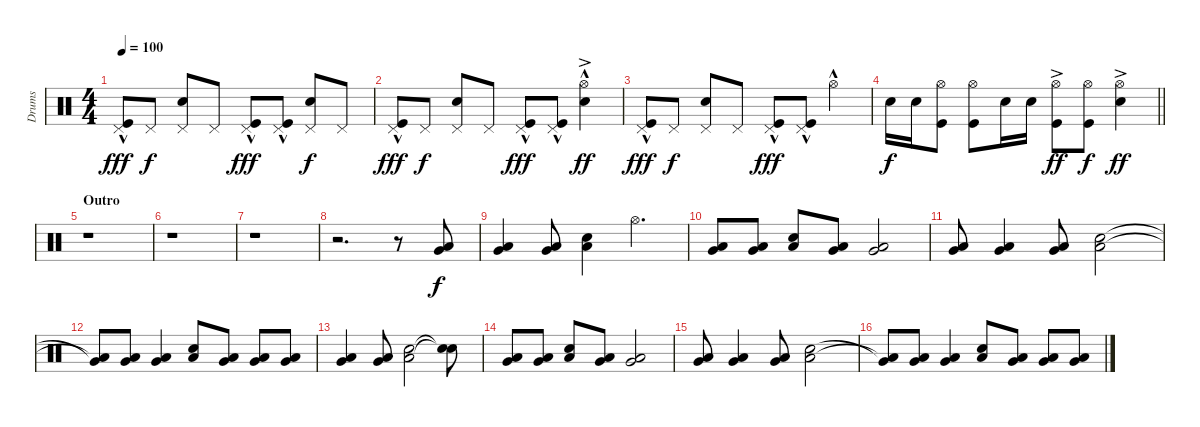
\track ("Drums" "Drums") {instrument percussion}
\staff {score}
\articulation defaults
\ts (4 4)
\tempo 100
\clef neutral
\ks c
("Pedal Hi-Hat (hit)" "Kick (hit)"{hac}).8{dy fff} "Pedal Hi-Hat (hit)".8{dy f} ("Pedal Hi-Hat (hit)" "Snare (hit) 2").8 "Pedal Hi-Hat (hit)".8 ("Pedal Hi-Hat (hit)" "Kick (hit)"{hac}).8{dy fff} ("Pedal Hi-Hat (hit)" "Kick (hit)"{hac}).8 ("Pedal Hi-Hat (hit)" "Snare (hit) 2").8{dy f} "Pedal Hi-Hat (hit)".8 |
("Pedal Hi-Hat (hit)" "Kick (hit)"{hac}).8{dy fff} "Pedal Hi-Hat (hit)".8{dy f} ("Pedal Hi-Hat (hit)" "Snare (hit) 2").8 "Pedal Hi-Hat (hit)".8 ("Pedal Hi-Hat (hit)" "Kick (hit)"{hac}).8{dy fff} ("Pedal Hi-Hat (hit)" "Kick (hit)"{hac}).8 ("Hi-Hat (open)"{hac} "Snare (hit) 2"{ac}).4{dy ff} |
("Pedal Hi-Hat (hit)" "Kick (hit)"{hac}).8{dy fff} "Pedal Hi-Hat (hit)".8{dy f} ("Pedal Hi-Hat (hit)" "Snare (hit) 2").8 "Pedal Hi-Hat (hit)".8 ("Pedal Hi-Hat (hit)" "Kick (hit)"{hac}).8{dy fff} ("Pedal Hi-Hat (hit)" "Kick (hit)"{hac}).8 "Hi-Hat (open)"{hac}.4 |
\barLineRight lightlight "Snare (hit) 2".16{dy f} "Snare (hit) 2".16
("Hi-Hat (open)" "Kick (hit)").8 ("Hi-Hat (open)" "Kick (hit)").8 "Snare (hit) 2".16 "Snare (hit) 2".16 ("Hi-Hat (open)"{ac} "Kick (hit)").8{dy ff} ("Hi-Hat (open)" "Kick (hit)").8{dy f} ("Hi-Hat (open)"{ac} "Snare (hit) 2"{ac}).4{dy ff} |
\section ("" "Outro")
r.1 |
r.1 |
r.1 |
r.2{d} r.8 ("Low Floor Tom (hit)" "Very Low Tom (hit)").8{dy f} |
("Low Floor Tom (hit)" "Very Low Tom (hit)").4 ("Low Floor Tom (hit)" "Very Low Tom (hit)").8 ("Low Floor Tom (hit)" "Snare (hit) 2").4 "Hi-Hat (open)".4{d} |
("Low Floor Tom (hit)" "Very Low Tom (hit)").8 ("Low Floor Tom (hit)" "Very Low Tom (hit)").8 ("Low Floor Tom (hit)" "Snare (hit) 2").8 ("Low Floor Tom (hit)" "Very Low Tom (hit)").8 ("Low Floor Tom (hit)" "Very Low Tom (hit)").2 |
("Low Floor Tom (hit)" "Very Low Tom (hit)").8 ("Low Floor Tom (hit)" "Very Low Tom (hit)").4 ("Low Floor Tom (hit)" "Very Low Tom (hit)").8 ("Low Floor Tom (hit)" "Snare (hit) 2").2 |
("Low Floor Tom (hit)"{t} "Very Low Tom (hit)"{t}).8 ("Low Floor Tom (hit)" "Very Low Tom (hit)").8 ("Low Floor Tom (hit)" "Very Low Tom (hit)").4 ("Low Floor Tom (hit)" "Snare (hit) 2").8 ("Low Floor Tom (hit)" "Very Low Tom (hit)").8 ("Low Floor Tom (hit)" "Very Low Tom (hit)").8 ("Low Floor Tom (hit)" "Very Low Tom (hit)").8 |
("Low Floor Tom (hit)" "Very Low Tom (hit)").4 ("Low Floor Tom (hit)" "Very Low Tom (hit)").8 ("Low Floor Tom (hit)" "Snare (hit) 2").2 ("Snare (hit)"{t} "Snare (hit)"{t}).8 |
("Low Floor Tom (hit)" "Very Low Tom (hit)").8 ("Low Floor Tom (hit)" "Very Low Tom (hit)").8 ("Low Floor Tom (hit)" "Snare (hit) 2").8 ("Low Floor Tom (hit)" "Very Low Tom (hit)").8 ("Low Floor Tom (hit)" "Very Low Tom (hit)").2 |
("Low Floor Tom (hit)" "Very Low Tom (hit)").8 ("Low Floor Tom (hit)" "Very Low Tom (hit)").4 ("Low Floor Tom (hit)" "Very Low Tom (hit)").8 ("Low Floor Tom (hit)" "Snare (hit) 2").2 |
("Low Floor Tom (hit)"{t} "Very Low Tom (hit)"{t}).8 ("Low Floor Tom (hit)" "Very Low Tom (hit)").8 ("Low Floor Tom (hit)" "Very Low Tom (hit)").4 ("Low Floor Tom (hit)" "Snare (hit) 2").8 ("Low Floor Tom (hit)" "Very Low Tom (hit)").8 ("Low Floor Tom (hit)" "Very Low Tom (hit)").8 ("Low Floor Tom (hit)" "Very Low Tom (hit)").8
